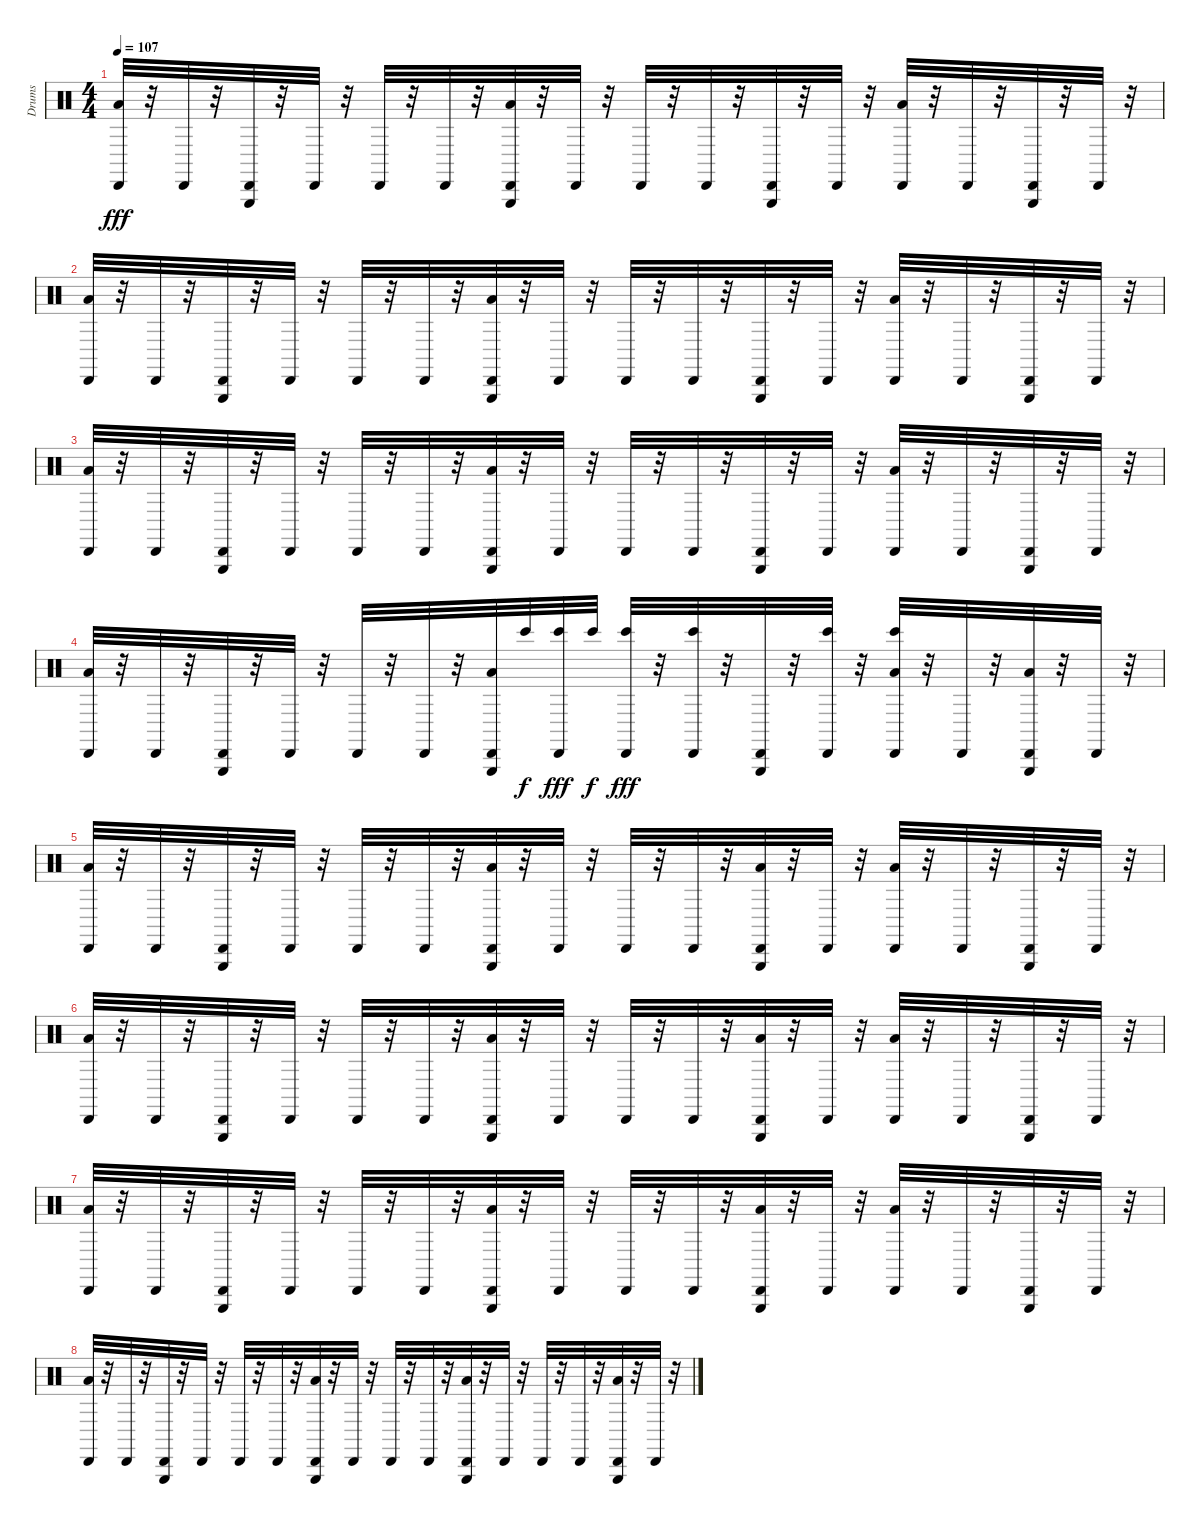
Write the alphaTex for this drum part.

\track ("Drums" "Drums") {instrument percussion}
\staff {score}
\articulation defaults
\ts (4 4)
\tempo 107
\clef neutral
\ks c
("Cabasa (hit)" "Low Floor Tom (hit)").32{dy fff} r.32 "Cabasa (hit)".32 r.32 ("Cabasa (hit)" "Triangle (hit)").32 r.32 "Cabasa (hit)".32 r.32 "Cabasa (hit)".32 r.32 "Cabasa (hit)".32 r.32 ("Cabasa (hit)" "Triangle (hit)" "Low Floor Tom (hit)").32 r.32 "Cabasa (hit)".32 r.32 "Cabasa (hit)".32 r.32 "Cabasa (hit)".32 r.32 ("Cabasa (hit)" "Triangle (hit)").32 r.32 "Cabasa (hit)".32 r.32 ("Cabasa (hit)" "Low Floor Tom (hit)").32 r.32 "Cabasa (hit)".32 r.32 ("Cabasa (hit)" "Triangle (hit)").32 r.32 "Cabasa (hit)".32 r.32 |
("Cabasa (hit)" "Low Floor Tom (hit)").32 r.32 "Cabasa (hit)".32 r.32 ("Cabasa (hit)" "Triangle (hit)").32 r.32 "Cabasa (hit)".32 r.32 "Cabasa (hit)".32 r.32 "Cabasa (hit)".32 r.32 ("Cabasa (hit)" "Triangle (hit)" "Low Floor Tom (hit)").32 r.32 "Cabasa (hit)".32 r.32 "Cabasa (hit)".32 r.32 "Cabasa (hit)".32 r.32 ("Cabasa (hit)" "Triangle (hit)").32 r.32 "Cabasa (hit)".32 r.32 ("Cabasa (hit)" "Low Floor Tom (hit)").32 r.32 "Cabasa (hit)".32 r.32 ("Cabasa (hit)" "Triangle (hit)").32 r.32 "Cabasa (hit)".32 r.32 |
("Cabasa (hit)" "Low Floor Tom (hit)").32 r.32 "Cabasa (hit)".32 r.32 ("Cabasa (hit)" "Triangle (hit)").32 r.32 "Cabasa (hit)".32 r.32 "Cabasa (hit)".32 r.32 "Cabasa (hit)".32 r.32 ("Cabasa (hit)" "Triangle (hit)" "Low Floor Tom (hit)").32 r.32 "Cabasa (hit)".32 r.32 "Cabasa (hit)".32 r.32 "Cabasa (hit)".32 r.32 ("Cabasa (hit)" "Triangle (hit)").32 r.32 "Cabasa (hit)".32 r.32 ("Cabasa (hit)" "Low Floor Tom (hit)").32 r.32 "Cabasa (hit)".32 r.32 ("Cabasa (hit)" "Triangle (hit)").32 r.32 "Cabasa (hit)".32 r.32 |
("Cabasa (hit)" "Low Floor Tom (hit)").32 r.32 "Cabasa (hit)".32 r.32 ("Cabasa (hit)" "Triangle (hit)").32 r.32 "Cabasa (hit)".32 r.32 "Cabasa (hit)".32 r.32 "Cabasa (hit)".32 r.32 ("Cabasa (hit)" "Triangle (hit)" "Low Floor Tom (hit)").32 "Bongo High (hit)".32{dy f} ("Cabasa (hit)" "Bongo High (hit)").32{dy fff} "Bongo High (hit)".32{dy f} ("Cabasa (hit)" "Bongo High (hit)").32{dy fff} r.32 ("Cabasa (hit)" "Bongo High (hit)").32 r.32 ("Cabasa (hit)" "Triangle (hit)").32 r.32 ("Cabasa (hit)" "Bongo High (hit)").32 r.32 ("Cabasa (hit)" "Low Floor Tom (hit)" "Bongo High (hit)").32 r.32 "Cabasa (hit)".32 r.32 ("Cabasa (hit)" "Triangle (hit)" "Low Floor Tom (hit)").32 r.32 "Cabasa (hit)".32 r.32 |
("Cabasa (hit)" "Low Floor Tom (hit)").32 r.32 "Cabasa (hit)".32 r.32 ("Cabasa (hit)" "Triangle (hit)").32 r.32 "Cabasa (hit)".32 r.32 "Cabasa (hit)".32 r.32 "Cabasa (hit)".32 r.32 ("Cabasa (hit)" "Triangle (hit)" "Low Floor Tom (hit)").32 r.32 "Cabasa (hit)".32 r.32 "Cabasa (hit)".32 r.32 "Cabasa (hit)".32 r.32 ("Cabasa (hit)" "Triangle (hit)" "Low Floor Tom (hit)").32 r.32 "Cabasa (hit)".32 r.32 ("Cabasa (hit)" "Low Floor Tom (hit)").32 r.32 "Cabasa (hit)".32 r.32 ("Cabasa (hit)" "Triangle (hit)").32 r.32 "Cabasa (hit)".32 r.32 |
("Cabasa (hit)" "Low Floor Tom (hit)").32 r.32 "Cabasa (hit)".32 r.32 ("Cabasa (hit)" "Triangle (hit)").32 r.32 "Cabasa (hit)".32 r.32 "Cabasa (hit)".32 r.32 "Cabasa (hit)".32 r.32 ("Cabasa (hit)" "Triangle (hit)" "Low Floor Tom (hit)").32 r.32 "Cabasa (hit)".32 r.32 "Cabasa (hit)".32 r.32 "Cabasa (hit)".32 r.32 ("Cabasa (hit)" "Triangle (hit)" "Low Floor Tom (hit)").32 r.32 "Cabasa (hit)".32 r.32 ("Cabasa (hit)" "Low Floor Tom (hit)").32 r.32 "Cabasa (hit)".32 r.32 ("Cabasa (hit)" "Triangle (hit)").32 r.32 "Cabasa (hit)".32 r.32 |
("Cabasa (hit)" "Low Floor Tom (hit)").32 r.32 "Cabasa (hit)".32 r.32 ("Cabasa (hit)" "Triangle (hit)").32 r.32 "Cabasa (hit)".32 r.32 "Cabasa (hit)".32 r.32 "Cabasa (hit)".32 r.32 ("Cabasa (hit)" "Triangle (hit)" "Low Floor Tom (hit)").32 r.32 "Cabasa (hit)".32 r.32 "Cabasa (hit)".32 r.32 "Cabasa (hit)".32 r.32 ("Cabasa (hit)" "Triangle (hit)" "Low Floor Tom (hit)").32 r.32 "Cabasa (hit)".32 r.32 ("Cabasa (hit)" "Low Floor Tom (hit)").32 r.32 "Cabasa (hit)".32 r.32 ("Cabasa (hit)" "Triangle (hit)").32 r.32 "Cabasa (hit)".32 r.32 |
("Cabasa (hit)" "Low Floor Tom (hit)").32 r.32 "Cabasa (hit)".32 r.32 ("Cabasa (hit)" "Triangle (hit)").32 r.32 "Cabasa (hit)".32 r.32 "Cabasa (hit)".32 r.32 "Cabasa (hit)".32 r.32 ("Cabasa (hit)" "Triangle (hit)" "Low Floor Tom (hit)").32 r.32 "Cabasa (hit)".32 r.32 "Cabasa (hit)".32 r.32 "Cabasa (hit)".32 r.32 ("Cabasa (hit)" "Triangle (hit)" "Low Floor Tom (hit)").32 r.32 "Cabasa (hit)".32 r.32 "Cabasa (hit)".32 r.32 "Cabasa (hit)".32 r.32 ("Cabasa (hit)" "Triangle (hit)" "Low Floor Tom (hit)").32 r.32 "Cabasa (hit)".32 r.32
